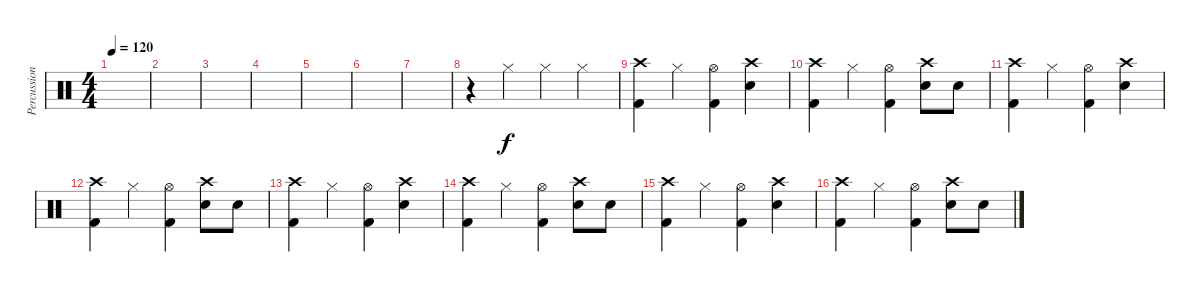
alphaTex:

\track ("Percussions" "Percussion") {instrument percussion}
\staff {score}
\articulation defaults
\ts (4 4)
\tempo 120
\clef neutral
\ks c
|
|
|
|
|
|
|
r.4 "Hi-Hat (closed)".4 "Hi-Hat (closed)".4 "Hi-Hat (closed)".4 |
("Crash high (hit)" "Kick (hit) 2").4 "Hi-Hat (closed)".4 ("Hi-Hat (open)" "Kick (hit) 2").4 ("Crash high (hit)" "Snare (hit) 2").4 |
("Crash high (hit)" "Kick (hit) 2").4 "Hi-Hat (closed)".4 ("Hi-Hat (open)" "Kick (hit) 2").4 ("Crash high (hit)" "Snare (hit) 2").8 "Snare (hit) 2".8 |
("Crash high (hit)" "Kick (hit) 2").4 "Hi-Hat (closed)".4 ("Hi-Hat (open)" "Kick (hit) 2").4 ("Crash high (hit)" "Snare (hit) 2").4 |
("Crash high (hit)" "Kick (hit) 2").4 "Hi-Hat (closed)".4 ("Hi-Hat (open)" "Kick (hit) 2").4 ("Crash high (hit)" "Snare (hit) 2").8 "Snare (hit) 2".8 |
("Crash high (hit)" "Kick (hit) 2").4 "Hi-Hat (closed)".4 ("Hi-Hat (open)" "Kick (hit) 2").4 ("Crash high (hit)" "Snare (hit) 2").4 |
("Crash high (hit)" "Kick (hit) 2").4 "Hi-Hat (closed)".4 ("Hi-Hat (open)" "Kick (hit) 2").4 ("Crash high (hit)" "Snare (hit) 2").8 "Snare (hit) 2".8 |
("Crash high (hit)" "Kick (hit) 2").4 "Hi-Hat (closed)".4 ("Hi-Hat (open)" "Kick (hit) 2").4 ("Crash high (hit)" "Snare (hit) 2").4 |
("Crash high (hit)" "Kick (hit) 2").4 "Hi-Hat (closed)".4 ("Hi-Hat (open)" "Kick (hit) 2").4 ("Crash high (hit)" "Snare (hit) 2").8 "Snare (hit) 2".8
